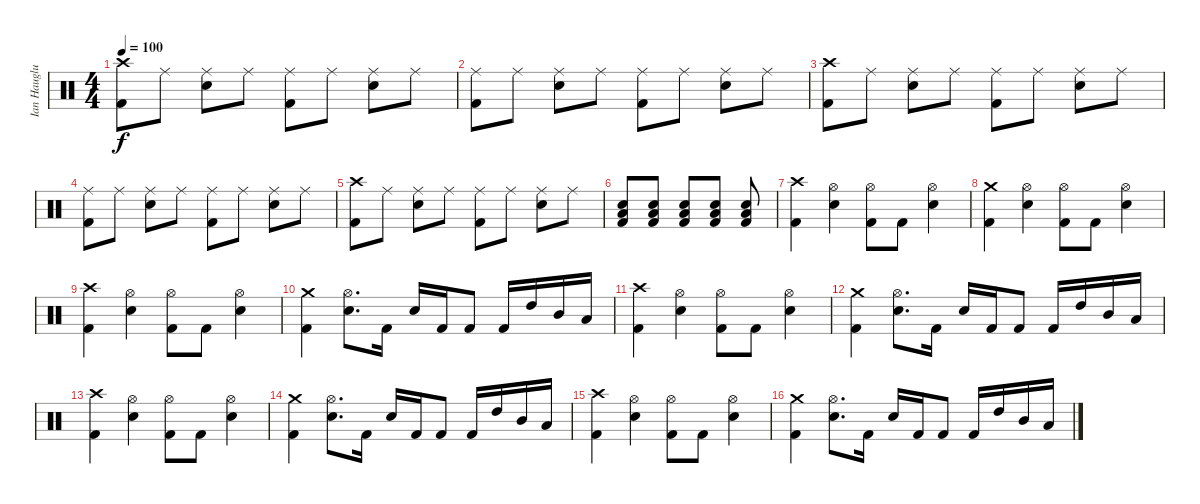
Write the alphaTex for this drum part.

\track ("Ian Hauglund" "Ian Hauglu") {instrument percussion}
\staff {score}
\articulation defaults
\ts (4 4)
\tempo 100
\clef neutral
\ks c
("Kick (hit) 2" "Crash high (hit)").8{dy f} "Ride (middle)".8 ("Electric Snare (hit)" "Ride (middle)").8 "Ride (middle)".8 ("Kick (hit) 2" "Ride (middle)").8 "Ride (middle)".8 ("Electric Snare (hit)" "Ride (middle)").8 "Ride (middle)".8 |
("Kick (hit) 2" "Ride (middle)").8 "Ride (middle)".8 ("Electric Snare (hit)" "Ride (middle)").8 "Ride (middle)".8 ("Kick (hit) 2" "Ride (middle)").8 "Ride (middle)".8 ("Electric Snare (hit)" "Ride (middle)").8 "Ride (middle)".8 |
("Kick (hit) 2" "Crash high (hit)").8 "Ride (middle)".8 ("Electric Snare (hit)" "Ride (middle)").8 "Ride (middle)".8 ("Kick (hit) 2" "Ride (middle)").8 "Ride (middle)".8 ("Electric Snare (hit)" "Ride (middle)").8 "Ride (middle)".8 |
("Kick (hit) 2" "Ride (middle)").8 "Ride (middle)".8 ("Electric Snare (hit)" "Ride (middle)").8 "Ride (middle)".8 ("Kick (hit) 2" "Ride (middle)").8 "Ride (middle)".8 ("Electric Snare (hit)" "Ride (middle)").8 "Ride (middle)".8 |
("Kick (hit) 2" "Crash high (hit)").8 "Ride (middle)".8 ("Electric Snare (hit)" "Ride (middle)").8 "Ride (middle)".8 ("Kick (hit) 2" "Ride (middle)").8 "Ride (middle)".8 ("Electric Snare (hit)" "Ride (middle)").8 "Ride (middle)".8 |
("Electric Snare (hit)" "Kick (hit) 2" "Low Floor Tom (hit)").8 ("Electric Snare (hit)" "Kick (hit) 2" "Low Floor Tom (hit)").8 ("Electric Snare (hit)" "Kick (hit) 2" "Low Floor Tom (hit)").8 ("Electric Snare (hit)" "Kick (hit) 2" "Low Floor Tom (hit)").8 ("Electric Snare (hit)" "Kick (hit) 2" "Low Floor Tom (hit)").8 |
("Kick (hit) 2" "Crash high (hit)").4 ("Electric Snare (hit)" "Hi-Hat (open)").4 ("Kick (hit) 2" "Hi-Hat (open)").8 "Kick (hit) 2".8 ("Electric Snare (hit)" "Hi-Hat (open)").4 |
("Kick (hit) 2" "Crash medium (hit)").4 ("Electric Snare (hit)" "Hi-Hat (open)").4 ("Kick (hit) 2" "Hi-Hat (open)").8 "Kick (hit) 2".8 ("Electric Snare (hit)" "Hi-Hat (open)").4 |
("Kick (hit) 2" "Crash high (hit)").4 ("Electric Snare (hit)" "Hi-Hat (open)").4 ("Kick (hit) 2" "Hi-Hat (open)").8 "Kick (hit) 2".8 ("Electric Snare (hit)" "Hi-Hat (open)").4 |
("Kick (hit) 2" "Crash medium (hit)").4 ("Electric Snare (hit)" "Hi-Hat (open)").8{d} "Kick (hit) 2".16 "Electric Snare (hit)".16 "Kick (hit) 2".16 "Kick (hit) 2".8 "Kick (hit) 2".16 "High Tom (hit)".16 "Mid Tom (hit)".16 "Low Tom (hit)".16 |
("Kick (hit) 2" "Crash high (hit)").4 ("Electric Snare (hit)" "Hi-Hat (open)").4 ("Kick (hit) 2" "Hi-Hat (open)").8 "Kick (hit) 2".8 ("Electric Snare (hit)" "Hi-Hat (open)").4 |
("Kick (hit) 2" "Crash medium (hit)").4 ("Electric Snare (hit)" "Hi-Hat (open)").8{d} "Kick (hit) 2".16 "Electric Snare (hit)".16 "Kick (hit) 2".16 "Kick (hit) 2".8 "Kick (hit) 2".16 "High Tom (hit)".16 "Mid Tom (hit)".16 "Low Tom (hit)".16 |
("Kick (hit) 2" "Crash high (hit)").4 ("Electric Snare (hit)" "Hi-Hat (open)").4 ("Kick (hit) 2" "Hi-Hat (open)").8 "Kick (hit) 2".8 ("Electric Snare (hit)" "Hi-Hat (open)").4 |
("Kick (hit) 2" "Crash medium (hit)").4 ("Electric Snare (hit)" "Hi-Hat (open)").8{d} "Kick (hit) 2".16 "Electric Snare (hit)".16 "Kick (hit) 2".16 "Kick (hit) 2".8 "Kick (hit) 2".16 "High Tom (hit)".16 "Mid Tom (hit)".16 "Low Tom (hit)".16 |
("Kick (hit) 2" "Crash high (hit)").4 ("Electric Snare (hit)" "Hi-Hat (open)").4 ("Kick (hit) 2" "Hi-Hat (open)").8 "Kick (hit) 2".8 ("Electric Snare (hit)" "Hi-Hat (open)").4 |
("Kick (hit) 2" "Crash medium (hit)").4 ("Electric Snare (hit)" "Hi-Hat (open)").8{d} "Kick (hit) 2".16 "Electric Snare (hit)".16 "Kick (hit) 2".16 "Kick (hit) 2".8 "Kick (hit) 2".16 "High Tom (hit)".16 "Mid Tom (hit)".16 "Low Tom (hit)".16
